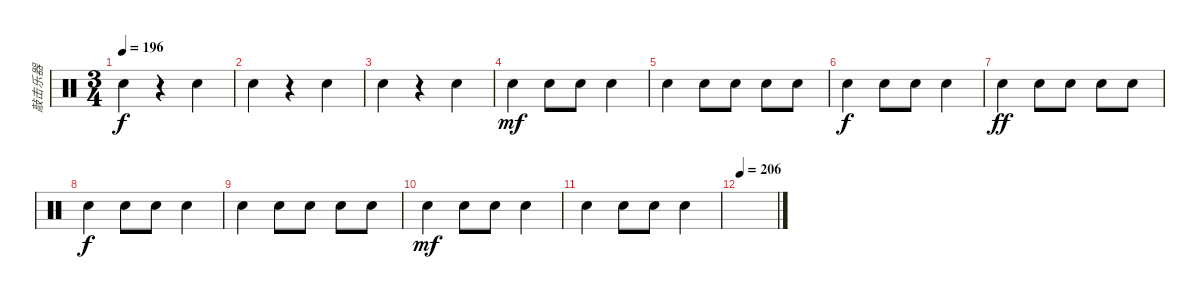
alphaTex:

\track ("敲击乐器" "敲击乐器") {instrument percussion}
\staff {score}
\articulation defaults
\ts (3 4)
\tempo 196
\clef neutral
\ks c "Snare (hit) 2".4{dy f}
r.4 "Snare (hit) 2".4 |
"Snare (hit) 2".4 r.4 "Snare (hit) 2".4 |
"Snare (hit) 2".4 r.4 "Snare (hit) 2".4 |
"Snare (hit) 2".4{dy mf} "Snare (hit) 2".8 "Snare (hit) 2".8 "Snare (hit) 2".4 |
"Snare (hit) 2".4 "Snare (hit) 2".8 "Snare (hit) 2".8 "Snare (hit) 2".8 "Snare (hit) 2".8 |
"Snare (hit) 2".4{dy f} "Snare (hit) 2".8 "Snare (hit) 2".8 "Snare (hit) 2".4 |
"Snare (hit) 2".4{dy ff} "Snare (hit) 2".8 "Snare (hit) 2".8 "Snare (hit) 2".8 "Snare (hit) 2".8 |
"Snare (hit) 2".4{dy f} "Snare (hit) 2".8 "Snare (hit) 2".8 "Snare (hit) 2".4 |
"Snare (hit) 2".4 "Snare (hit) 2".8 "Snare (hit) 2".8 "Snare (hit) 2".8 "Snare (hit) 2".8 |
"Snare (hit) 2".4{dy mf} "Snare (hit) 2".8 "Snare (hit) 2".8 "Snare (hit) 2".4 |
"Snare (hit) 2".4 "Snare (hit) 2".8 "Snare (hit) 2".8 "Snare (hit) 2".4 |
\tempo 206
